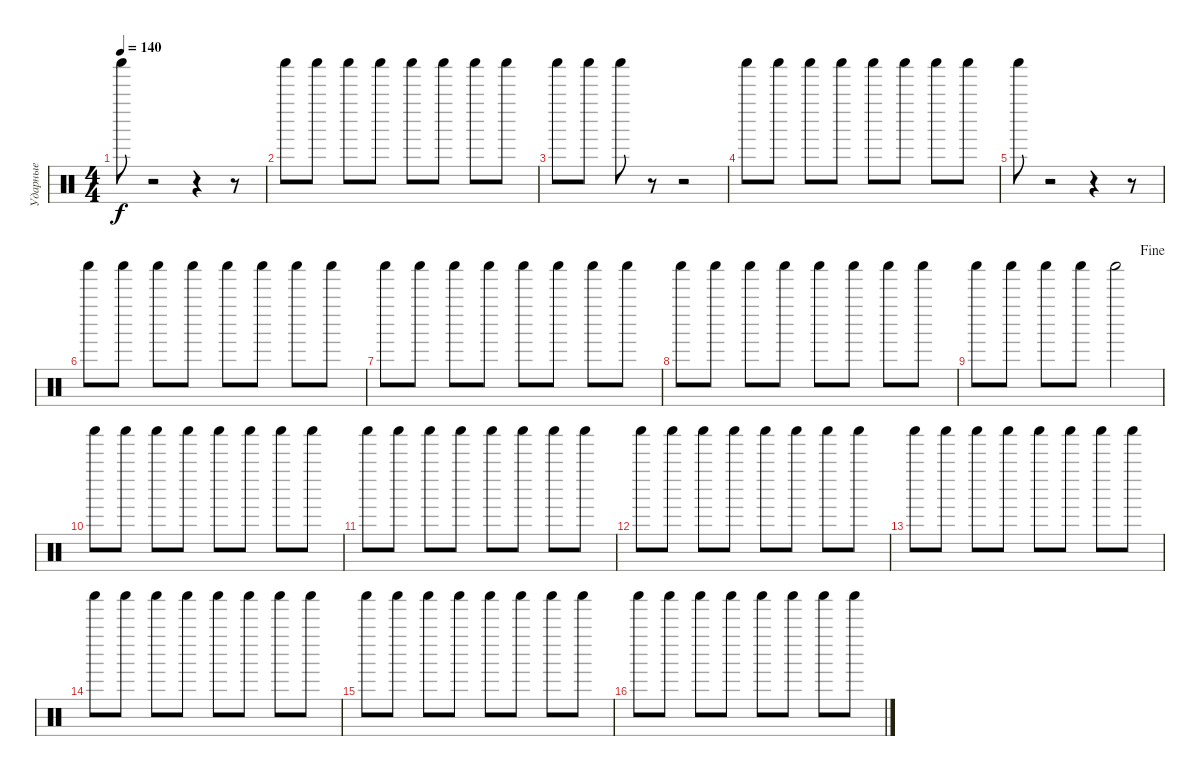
\track ("Ударные" "Ударные") {instrument percussion}
\staff {score}
\articulation defaults
\ts (4 4)
\tempo 140
\clef neutral
\ks c "Shaker (hit)".8{dy f}
r.2 r.4 r.8 |
"Shaker (hit)".8 "Shaker (hit)".8 "Shaker (hit)".8 "Shaker (hit)".8 "Shaker (hit)".8 "Shaker (hit)".8 "Shaker (hit)".8 "Shaker (hit)".8 |
"Shaker (hit)".8 "Shaker (hit)".8 "Shaker (hit)".8 r.8 r.2 |
"Shaker (hit)".8 "Shaker (hit)".8 "Shaker (hit)".8 "Shaker (hit)".8 "Shaker (hit)".8 "Shaker (hit)".8 "Shaker (hit)".8 "Shaker (hit)".8 |
"Shaker (hit)".8 r.2 r.4 r.8 |
"Shaker (hit)".8 "Shaker (hit)".8 "Shaker (hit)".8 "Shaker (hit)".8 "Shaker (hit)".8 "Shaker (hit)".8 "Shaker (hit)".8 "Shaker (hit)".8 |
"Shaker (hit)".8 "Shaker (hit)".8 "Shaker (hit)".8 "Shaker (hit)".8 "Shaker (hit)".8 "Shaker (hit)".8 "Shaker (hit)".8 "Shaker (hit)".8 |
"Shaker (hit)".8 "Shaker (hit)".8 "Shaker (hit)".8 "Shaker (hit)".8 "Shaker (hit)".8 "Shaker (hit)".8 "Shaker (hit)".8 "Shaker (hit)".8 |
\jump fine "Shaker (hit)".8 "Shaker (hit)".8 "Shaker (hit)".8 "Shaker (hit)".8 "Shaker (hit)".2
|
"Shaker (hit)".8 "Shaker (hit)".8 "Shaker (hit)".8 "Shaker (hit)".8 "Shaker (hit)".8 "Shaker (hit)".8 "Shaker (hit)".8 "Shaker (hit)".8 |
"Shaker (hit)".8 "Shaker (hit)".8 "Shaker (hit)".8 "Shaker (hit)".8 "Shaker (hit)".8 "Shaker (hit)".8 "Shaker (hit)".8 "Shaker (hit)".8 |
"Shaker (hit)".8 "Shaker (hit)".8 "Shaker (hit)".8 "Shaker (hit)".8 "Shaker (hit)".8 "Shaker (hit)".8 "Shaker (hit)".8 "Shaker (hit)".8 |
"Shaker (hit)".8 "Shaker (hit)".8 "Shaker (hit)".8 "Shaker (hit)".8 "Shaker (hit)".8 "Shaker (hit)".8 "Shaker (hit)".8 "Shaker (hit)".8 |
"Shaker (hit)".8 "Shaker (hit)".8 "Shaker (hit)".8 "Shaker (hit)".8 "Shaker (hit)".8 "Shaker (hit)".8 "Shaker (hit)".8 "Shaker (hit)".8 |
"Shaker (hit)".8 "Shaker (hit)".8 "Shaker (hit)".8 "Shaker (hit)".8 "Shaker (hit)".8 "Shaker (hit)".8 "Shaker (hit)".8 "Shaker (hit)".8 |
"Shaker (hit)".8 "Shaker (hit)".8 "Shaker (hit)".8 "Shaker (hit)".8 "Shaker (hit)".8 "Shaker (hit)".8 "Shaker (hit)".8 "Shaker (hit)".8
